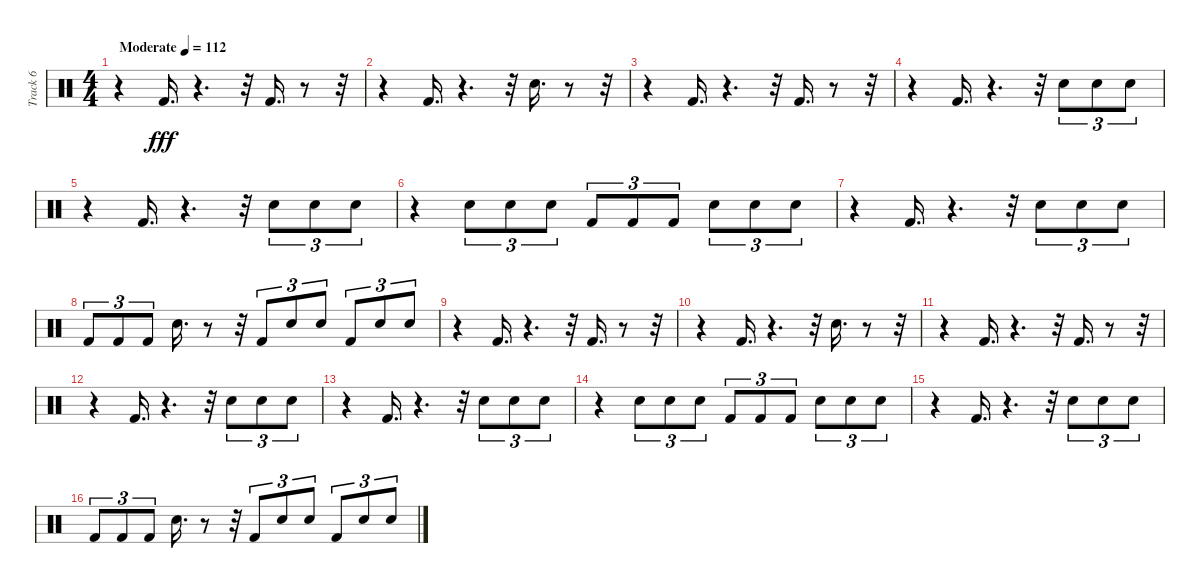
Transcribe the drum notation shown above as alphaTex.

\track ("Track 6" "Track 6") {instrument percussion}
\staff {score}
\articulation defaults
\ts (4 4)
\tempo (112 "Moderate")
\clef neutral
\ks c
r.4{dy fff} "Kick (hit) 2".16{d} r.4{d} r.32 "Kick (hit) 2".16{d} r.8 r.32 |
r.4 "Kick (hit) 2".16{d} r.4{d} r.32 "Snare (hit) 2".16{d} r.8 r.32 |
r.4 "Kick (hit) 2".16{d} r.4{d} r.32 "Kick (hit) 2".16{d} r.8 r.32 |
r.4 "Kick (hit) 2".16{d} r.4{d} r.32 "Snare (hit) 2".8{tu (3 2)} "Snare (hit) 2".8{tu (3 2)} "Snare (hit) 2".8{tu (3 2)} |
r.4 "Kick (hit) 2".16{d} r.4{d} r.32 "Snare (hit) 2".8{tu (3 2)} "Snare (hit) 2".8{tu (3 2)} "Snare (hit) 2".8{tu (3 2)} |
r.4 "Snare (hit) 2".8{tu (3 2)} "Snare (hit) 2".8{tu (3 2)} "Snare (hit) 2".8{tu (3 2)} "Kick (hit) 2".8{tu (3 2)} "Kick (hit) 2".8{tu (3 2)} "Kick (hit) 2".8{tu (3 2)} "Snare (hit) 2".8{tu (3 2)} "Snare (hit) 2".8{tu (3 2)} "Snare (hit) 2".8{tu (3 2)} |
r.4 "Kick (hit) 2".16{d} r.4{d} r.32 "Snare (hit) 2".8{tu (3 2)} "Snare (hit) 2".8{tu (3 2)} "Snare (hit) 2".8{tu (3 2)} |
"Kick (hit) 2".8{tu (3 2)} "Kick (hit) 2".8{tu (3 2)} "Kick (hit) 2".8{tu (3 2)} "Snare (hit) 2".16{d} r.8 r.32 "Kick (hit) 2".8{tu (3 2)} "Snare (hit) 2".8{tu (3 2)} "Snare (hit) 2".8{tu (3 2)} "Kick (hit) 2".8{tu (3 2)} "Snare (hit) 2".8{tu (3 2)} "Snare (hit) 2".8{tu (3 2)} |
r.4 "Kick (hit) 2".16{d} r.4{d} r.32 "Kick (hit) 2".16{d} r.8 r.32 |
r.4 "Kick (hit) 2".16{d} r.4{d} r.32 "Snare (hit) 2".16{d} r.8 r.32 |
r.4 "Kick (hit) 2".16{d} r.4{d} r.32 "Kick (hit) 2".16{d} r.8 r.32 |
r.4 "Kick (hit) 2".16{d} r.4{d} r.32 "Snare (hit) 2".8{tu (3 2)} "Snare (hit) 2".8{tu (3 2)} "Snare (hit) 2".8{tu (3 2)} |
r.4 "Kick (hit) 2".16{d} r.4{d} r.32 "Snare (hit) 2".8{tu (3 2)} "Snare (hit) 2".8{tu (3 2)} "Snare (hit) 2".8{tu (3 2)} |
r.4 "Snare (hit) 2".8{tu (3 2)} "Snare (hit) 2".8{tu (3 2)} "Snare (hit) 2".8{tu (3 2)} "Kick (hit) 2".8{tu (3 2)} "Kick (hit) 2".8{tu (3 2)} "Kick (hit) 2".8{tu (3 2)} "Snare (hit) 2".8{tu (3 2)} "Snare (hit) 2".8{tu (3 2)} "Snare (hit) 2".8{tu (3 2)} |
r.4 "Kick (hit) 2".16{d} r.4{d} r.32 "Snare (hit) 2".8{tu (3 2)} "Snare (hit) 2".8{tu (3 2)} "Snare (hit) 2".8{tu (3 2)} |
"Kick (hit) 2".8{tu (3 2)} "Kick (hit) 2".8{tu (3 2)} "Kick (hit) 2".8{tu (3 2)} "Snare (hit) 2".16{d} r.8 r.32 "Kick (hit) 2".8{tu (3 2)} "Snare (hit) 2".8{tu (3 2)} "Snare (hit) 2".8{tu (3 2)} "Kick (hit) 2".8{tu (3 2)} "Snare (hit) 2".8{tu (3 2)} "Snare (hit) 2".8{tu (3 2)}
